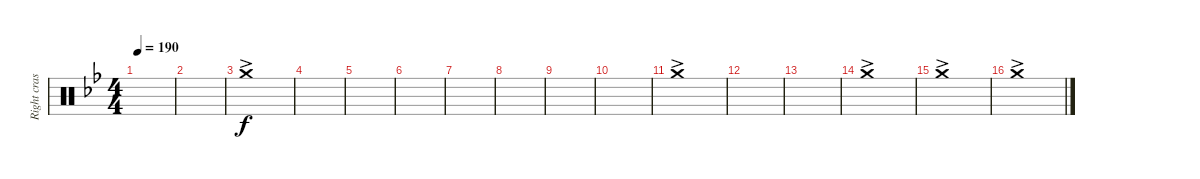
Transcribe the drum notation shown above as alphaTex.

\track ("Right crash" "Right cras") {instrument percussion}
\staff {score}
\articulation defaults
\ts (4 4)
\tempo 190
\clef neutral
\ks bb
|
|
"Crash medium (hit)"{ac}.1 |
|
|
|
|
|
|
|
"Crash medium (hit)"{ac}.1 |
|
|
"Crash medium (hit)"{ac}.1 |
"Crash medium (hit)"{ac}.1 |
"Crash medium (hit)"{ac}.1
